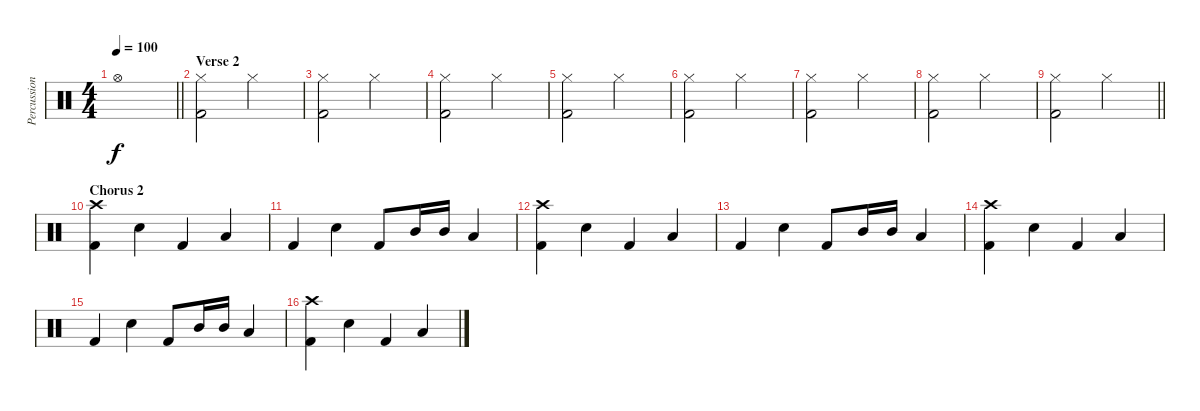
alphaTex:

\track ("Percussion" "Percussion") {instrument percussion}
\staff {score}
\articulation defaults
\ts (4 4)
\tempo 100
\clef neutral
\barLineRight lightlight
\ks c "Hi-Hat (open)".1{dy f}
|
\section ("" "Verse 2")
("Hi-Hat (closed)" "Kick (hit) 2").2 "Hi-Hat (closed)".2 |
("Hi-Hat (closed)" "Kick (hit) 2").2 "Hi-Hat (closed)".2 |
("Hi-Hat (closed)" "Kick (hit) 2").2 "Hi-Hat (closed)".2 |
("Hi-Hat (closed)" "Kick (hit) 2").2 "Hi-Hat (closed)".2 |
("Hi-Hat (closed)" "Kick (hit) 2").2 "Hi-Hat (closed)".2 |
("Hi-Hat (closed)" "Kick (hit) 2").2 "Hi-Hat (closed)".2 |
("Hi-Hat (closed)" "Kick (hit) 2").2 "Hi-Hat (closed)".2 |
\barLineRight lightlight
("Hi-Hat (closed)" "Kick (hit) 2").2 "Hi-Hat (closed)".2 |
\section ("" "Chorus 2")
("Crash high (hit)" "Kick (hit) 2").4{volume 16} "Electric Snare (hit)".4 "Kick (hit) 2".4 "Low Tom (hit)".4 |
"Kick (hit) 2".4 "Electric Snare (hit)".4 "Kick (hit) 2".8 "Mid Tom (hit)".16 "Mid Tom (hit)".16 "Low Tom (hit)".4 |
("Crash high (hit)" "Kick (hit) 2").4 "Electric Snare (hit)".4 "Kick (hit) 2".4 "Low Tom (hit)".4 |
"Kick (hit) 2".4 "Electric Snare (hit)".4 "Kick (hit) 2".8 "Mid Tom (hit)".16 "Mid Tom (hit)".16 "Low Tom (hit)".4 |
("Crash high (hit)" "Kick (hit) 2").4 "Electric Snare (hit)".4 "Kick (hit) 2".4 "Low Tom (hit)".4 |
"Kick (hit) 2".4 "Electric Snare (hit)".4 "Kick (hit) 2".8 "Mid Tom (hit)".16 "Mid Tom (hit)".16 "Low Tom (hit)".4 |
("Crash high (hit)" "Kick (hit) 2").4 "Electric Snare (hit)".4 "Kick (hit) 2".4 "Low Tom (hit)".4
